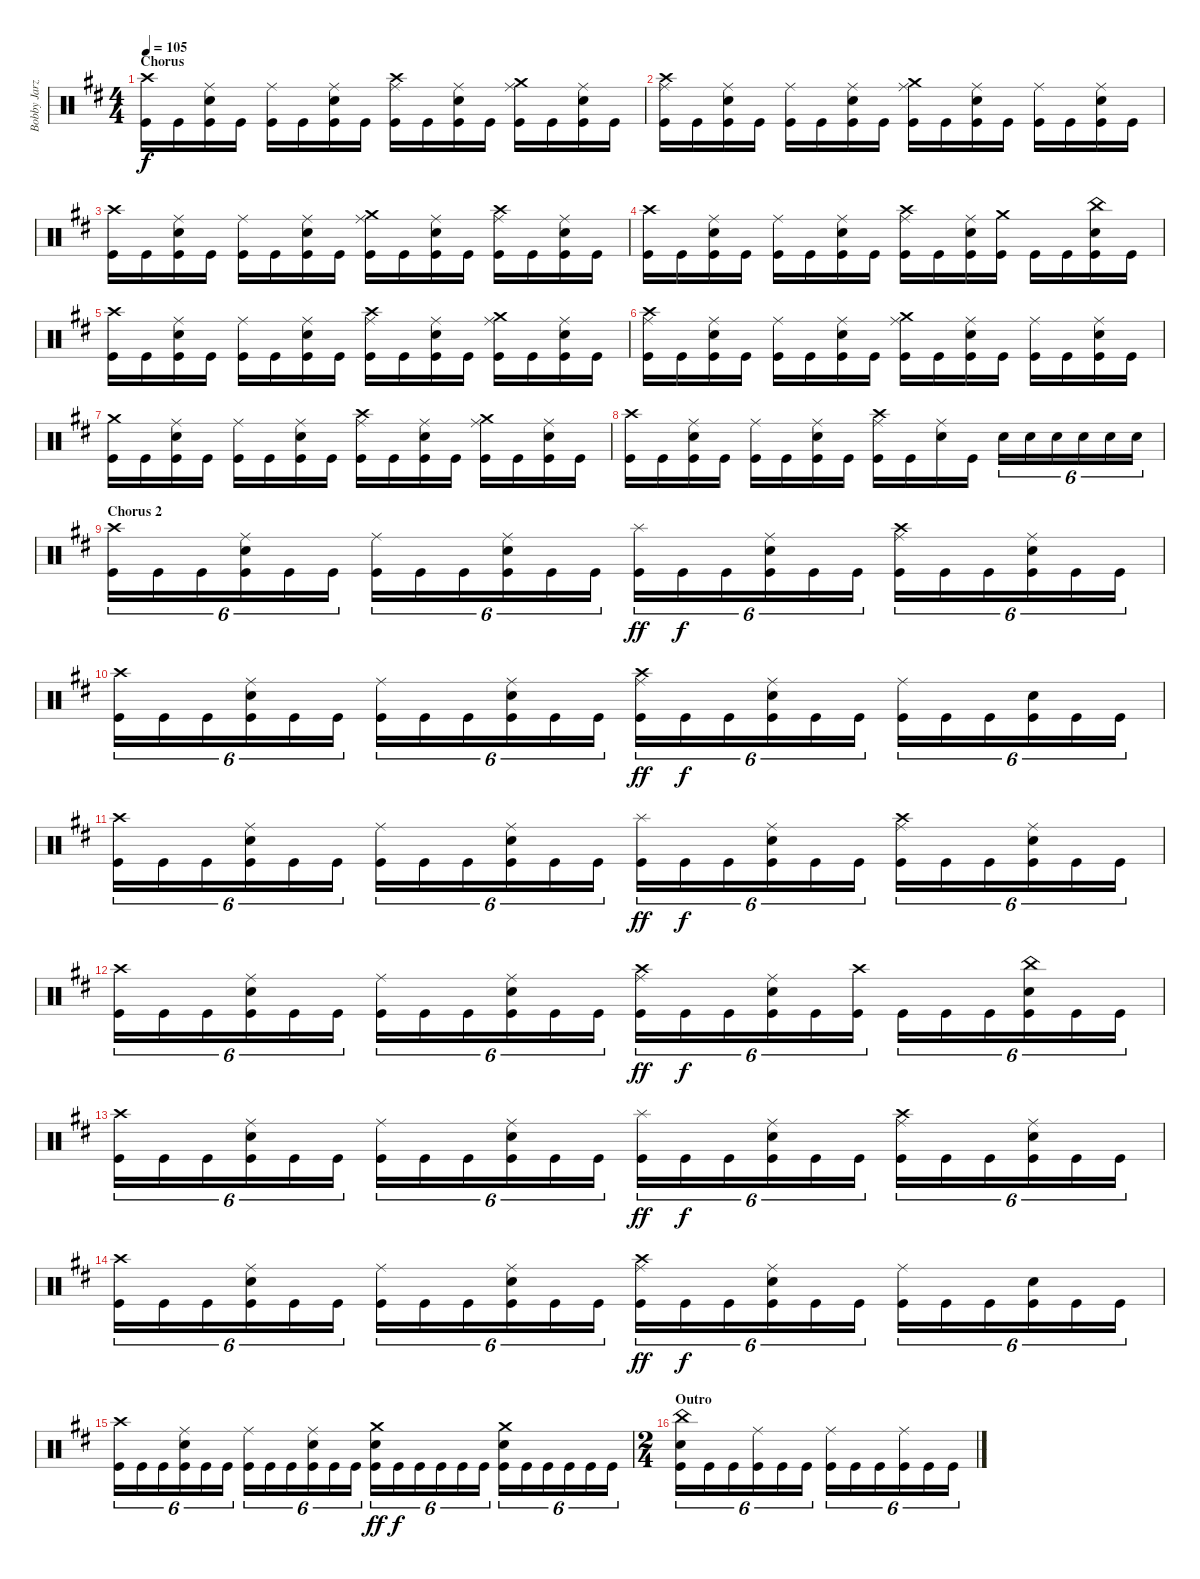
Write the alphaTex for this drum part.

\track ("Bobby Jarzombek" "Bobby Jarz") {instrument percussion}
\staff {score}
\articulation defaults
\ts (4 4)
\section ("" "Chorus")
\tempo 105
\clef neutral
\ks d
("Crash high (hit)" "Kick (hit)").16{dy f} "Kick (hit)".16 ("Ride (middle)" "Electric Snare (hit)" "Kick (hit)").16 "Kick (hit)".16 ("Ride (middle)" "Kick (hit)").16 "Kick (hit)".16 ("Ride (middle)" "Electric Snare (hit)" "Kick (hit)").16 "Kick (hit)".16 ("Crash high (hit)" "Ride (middle)" "Kick (hit)").16 "Kick (hit)".16 ("Ride (middle)" "Electric Snare (hit)" "Kick (hit)").16 "Kick (hit)".16 ("Crash medium (hit)" "Ride (middle)" "Kick (hit)").16 "Kick (hit)".16 ("Ride (middle)" "Electric Snare (hit)" "Kick (hit)").16 "Kick (hit)".16 |
("Crash high (hit)" "Ride (middle)" "Kick (hit)").16 "Kick (hit)".16 ("Ride (middle)" "Electric Snare (hit)" "Kick (hit)").16 "Kick (hit)".16 ("Ride (middle)" "Kick (hit)").16 "Kick (hit)".16 ("Ride (middle)" "Electric Snare (hit)" "Kick (hit)").16 "Kick (hit)".16 ("Crash medium (hit)" "Ride (middle)" "Kick (hit)").16 "Kick (hit)".16 ("Ride (middle)" "Electric Snare (hit)" "Kick (hit)").16 "Kick (hit)".16 ("Ride (middle)" "Kick (hit)").16 "Kick (hit)".16 ("Ride (middle)" "Electric Snare (hit)" "Kick (hit)").16 "Kick (hit)".16 |
("Crash high (hit)" "Kick (hit)").16 "Kick (hit)".16 ("Ride (middle)" "Electric Snare (hit)" "Kick (hit)").16 "Kick (hit)".16 ("Ride (middle)" "Kick (hit)").16 "Kick (hit)".16 ("Ride (middle)" "Electric Snare (hit)" "Kick (hit)").16 "Kick (hit)".16 ("Crash medium (hit)" "Ride (middle)" "Kick (hit)").16 "Kick (hit)".16 ("Ride (middle)" "Electric Snare (hit)" "Kick (hit)").16 "Kick (hit)".16 ("Crash high (hit)" "Ride (middle)" "Kick (hit)").16 "Kick (hit)".16 ("Ride (middle)" "Electric Snare (hit)" "Kick (hit)").16 "Kick (hit)".16 |
("Crash high (hit)" "Kick (hit)").16 "Kick (hit)".16 ("Ride (middle)" "Electric Snare (hit)" "Kick (hit)").16 "Kick (hit)".16 ("Ride (middle)" "Kick (hit)").16 "Kick (hit)".16 ("Ride (middle)" "Electric Snare (hit)" "Kick (hit)").16 "Kick (hit)".16 ("Crash high (hit)" "Ride (middle)" "Kick (hit)").16 "Kick (hit)".16 ("Ride (middle)" "Electric Snare (hit)" "Kick (hit)").16 ("Crash medium (hit)" "Kick (hit)").16 "Kick (hit)".16 "Kick (hit)".16 ("China (hit)" "Electric Snare (hit)" "Kick (hit)").16 "Kick (hit)".16 |
("Crash high (hit)" "Kick (hit)").16 "Kick (hit)".16 ("Ride (middle)" "Electric Snare (hit)" "Kick (hit)").16 "Kick (hit)".16 ("Ride (middle)" "Kick (hit)").16 "Kick (hit)".16 ("Ride (middle)" "Electric Snare (hit)" "Kick (hit)").16 "Kick (hit)".16 ("Crash high (hit)" "Ride (middle)" "Kick (hit)").16 "Kick (hit)".16 ("Ride (middle)" "Electric Snare (hit)" "Kick (hit)").16 "Kick (hit)".16 ("Crash medium (hit)" "Ride (middle)" "Kick (hit)").16 "Kick (hit)".16 ("Ride (middle)" "Electric Snare (hit)" "Kick (hit)").16 "Kick (hit)".16 |
("Crash high (hit)" "Ride (middle)" "Kick (hit)").16 "Kick (hit)".16 ("Ride (middle)" "Electric Snare (hit)" "Kick (hit)").16 "Kick (hit)".16 ("Ride (middle)" "Kick (hit)").16 "Kick (hit)".16 ("Ride (middle)" "Electric Snare (hit)" "Kick (hit)").16 "Kick (hit)".16 ("Crash medium (hit)" "Ride (middle)" "Kick (hit)").16 "Kick (hit)".16 ("Ride (middle)" "Electric Snare (hit)" "Kick (hit)").16 "Kick (hit)".16 ("Ride (middle)" "Kick (hit)").16 "Kick (hit)".16 ("Ride (middle)" "Electric Snare (hit)" "Kick (hit)").16 "Kick (hit)".16 |
("Crash medium (hit)" "Kick (hit)").16 "Kick (hit)".16 ("Ride (middle)" "Electric Snare (hit)" "Kick (hit)").16 "Kick (hit)".16 ("Ride (middle)" "Kick (hit)").16 "Kick (hit)".16 ("Ride (middle)" "Electric Snare (hit)" "Kick (hit)").16 "Kick (hit)".16 ("Crash high (hit)" "Ride (middle)" "Kick (hit)").16 "Kick (hit)".16 ("Ride (middle)" "Electric Snare (hit)" "Kick (hit)").16 "Kick (hit)".16 ("Crash medium (hit)" "Ride (middle)" "Kick (hit)").16 "Kick (hit)".16 ("Ride (middle)" "Electric Snare (hit)" "Kick (hit)").16 "Kick (hit)".16 |
("Crash high (hit)" "Kick (hit)").16 "Kick (hit)".16 ("Ride (middle)" "Electric Snare (hit)" "Kick (hit)").16 "Kick (hit)".16 ("Ride (middle)" "Kick (hit)").16 "Kick (hit)".16 ("Ride (middle)" "Electric Snare (hit)" "Kick (hit)").16 "Kick (hit)".16 ("Crash high (hit)" "Ride (middle)" "Kick (hit)").16 "Kick (hit)".16 ("Ride (middle)" "Electric Snare (hit)").16 "Kick (hit)".16 "Electric Snare (hit)".16{tu (6 4)} "Electric Snare (hit)".16{tu (6 4)} "Electric Snare (hit)".16{tu (6 4)} "Electric Snare (hit)".16{tu (6 4)} "Electric Snare (hit)".16{tu (6 4)} "Electric Snare (hit)".16{tu (6 4)} |
\section ("" "Chorus 2")
("Crash high (hit)" "Kick (hit)").16{tu (6 4)} "Kick (hit)".16{tu (6 4)} "Kick (hit)".16{tu (6 4)} ("Ride (middle)" "Electric Snare (hit)" "Kick (hit)").16{tu (6 4)} "Kick (hit)".16{tu (6 4)} "Kick (hit)".16{tu (6 4)} ("Ride (middle)" "Kick (hit)").16{tu (6 4)} "Kick (hit)".16{tu (6 4)} "Kick (hit)".16{tu (6 4)} ("Ride (middle)" "Electric Snare (hit)" "Kick (hit)").16{tu (6 4)} "Kick (hit)".16{tu (6 4)} "Kick (hit)".16{tu (6 4)} ("Splash (hit)" "Kick (hit)").16{tu (6 4) dy ff} "Kick (hit)".16{tu (6 4) dy f} "Kick (hit)".16{tu (6 4)} ("Ride (middle)" "Electric Snare (hit)" "Kick (hit)").16{tu (6 4)} "Kick (hit)".16{tu (6 4)} "Kick (hit)".16{tu (6 4)} ("Crash high (hit)" "Ride (middle)" "Kick (hit)").16{tu (6 4)} "Kick (hit)".16{tu (6 4)} "Kick (hit)".16{tu (6 4)} ("Ride (middle)" "Electric Snare (hit)" "Kick (hit)").16{tu (6 4)} "Kick (hit)".16{tu (6 4)} "Kick (hit)".16{tu (6 4)} |
("Crash high (hit)" "Kick (hit)").16{tu (6 4)} "Kick (hit)".16{tu (6 4)} "Kick (hit)".16{tu (6 4)} ("Ride (middle)" "Electric Snare (hit)" "Kick (hit)").16{tu (6 4)} "Kick (hit)".16{tu (6 4)} "Kick (hit)".16{tu (6 4)} ("Ride (middle)" "Kick (hit)").16{tu (6 4)} "Kick (hit)".16{tu (6 4)} "Kick (hit)".16{tu (6 4)} ("Ride (middle)" "Electric Snare (hit)" "Kick (hit)").16{tu (6 4)} "Kick (hit)".16{tu (6 4)} "Kick (hit)".16{tu (6 4)} ("Crash high (hit)" "Ride (middle)" "Kick (hit)").16{tu (6 4) dy ff} "Kick (hit)".16{tu (6 4) dy f} "Kick (hit)".16{tu (6 4)} ("Ride (middle)" "Electric Snare (hit)" "Kick (hit)").16{tu (6 4)} "Kick (hit)".16{tu (6 4)} "Kick (hit)".16{tu (6 4)} ("Ride (middle)" "Kick (hit)").16{tu (6 4)} "Kick (hit)".16{tu (6 4)} "Kick (hit)".16{tu (6 4)} ("Electric Snare (hit)" "Kick (hit)").16{tu (6 4)} "Kick (hit)".16{tu (6 4)} "Kick (hit)".16{tu (6 4)} |
("Crash high (hit)" "Kick (hit)").16{tu (6 4)} "Kick (hit)".16{tu (6 4)} "Kick (hit)".16{tu (6 4)} ("Ride (middle)" "Electric Snare (hit)" "Kick (hit)").16{tu (6 4)} "Kick (hit)".16{tu (6 4)} "Kick (hit)".16{tu (6 4)} ("Ride (middle)" "Kick (hit)").16{tu (6 4)} "Kick (hit)".16{tu (6 4)} "Kick (hit)".16{tu (6 4)} ("Ride (middle)" "Electric Snare (hit)" "Kick (hit)").16{tu (6 4)} "Kick (hit)".16{tu (6 4)} "Kick (hit)".16{tu (6 4)} ("Splash (hit)" "Kick (hit)").16{tu (6 4) dy ff} "Kick (hit)".16{tu (6 4) dy f} "Kick (hit)".16{tu (6 4)} ("Ride (middle)" "Electric Snare (hit)" "Kick (hit)").16{tu (6 4)} "Kick (hit)".16{tu (6 4)} "Kick (hit)".16{tu (6 4)} ("Crash high (hit)" "Ride (middle)" "Kick (hit)").16{tu (6 4)} "Kick (hit)".16{tu (6 4)} "Kick (hit)".16{tu (6 4)} ("Ride (middle)" "Electric Snare (hit)" "Kick (hit)").16{tu (6 4)} "Kick (hit)".16{tu (6 4)} "Kick (hit)".16{tu (6 4)} |
("Crash high (hit)" "Kick (hit)").16{tu (6 4)} "Kick (hit)".16{tu (6 4)} "Kick (hit)".16{tu (6 4)} ("Ride (middle)" "Electric Snare (hit)" "Kick (hit)").16{tu (6 4)} "Kick (hit)".16{tu (6 4)} "Kick (hit)".16{tu (6 4)} ("Ride (middle)" "Kick (hit)").16{tu (6 4)} "Kick (hit)".16{tu (6 4)} "Kick (hit)".16{tu (6 4)} ("Ride (middle)" "Electric Snare (hit)" "Kick (hit)").16{tu (6 4)} "Kick (hit)".16{tu (6 4)} "Kick (hit)".16{tu (6 4)} ("Crash high (hit)" "Ride (middle)" "Kick (hit)").16{tu (6 4) dy ff} "Kick (hit)".16{tu (6 4) dy f} "Kick (hit)".16{tu (6 4)} ("Ride (middle)" "Electric Snare (hit)" "Kick (hit)").16{tu (6 4)} "Kick (hit)".16{tu (6 4)} ("Crash high (hit)" "Kick (hit)").16{tu (6 4)} "Kick (hit)".16{tu (6 4)} "Kick (hit)".16{tu (6 4)} "Kick (hit)".16{tu (6 4)} ("China (hit)" "Electric Snare (hit)" "Kick (hit)").16{tu (6 4)} "Kick (hit)".16{tu (6 4)} "Kick (hit)".16{tu (6 4)} |
("Crash high (hit)" "Kick (hit)").16{tu (6 4)} "Kick (hit)".16{tu (6 4)} "Kick (hit)".16{tu (6 4)} ("Ride (middle)" "Electric Snare (hit)" "Kick (hit)").16{tu (6 4)} "Kick (hit)".16{tu (6 4)} "Kick (hit)".16{tu (6 4)} ("Ride (middle)" "Kick (hit)").16{tu (6 4)} "Kick (hit)".16{tu (6 4)} "Kick (hit)".16{tu (6 4)} ("Ride (middle)" "Electric Snare (hit)" "Kick (hit)").16{tu (6 4)} "Kick (hit)".16{tu (6 4)} "Kick (hit)".16{tu (6 4)} ("Splash (hit)" "Kick (hit)").16{tu (6 4) dy ff} "Kick (hit)".16{tu (6 4) dy f} "Kick (hit)".16{tu (6 4)} ("Ride (middle)" "Electric Snare (hit)" "Kick (hit)").16{tu (6 4)} "Kick (hit)".16{tu (6 4)} "Kick (hit)".16{tu (6 4)} ("Crash high (hit)" "Ride (middle)" "Kick (hit)").16{tu (6 4)} "Kick (hit)".16{tu (6 4)} "Kick (hit)".16{tu (6 4)} ("Ride (middle)" "Electric Snare (hit)" "Kick (hit)").16{tu (6 4)} "Kick (hit)".16{tu (6 4)} "Kick (hit)".16{tu (6 4)} |
("Crash high (hit)" "Kick (hit)").16{tu (6 4)} "Kick (hit)".16{tu (6 4)} "Kick (hit)".16{tu (6 4)} ("Ride (middle)" "Electric Snare (hit)" "Kick (hit)").16{tu (6 4)} "Kick (hit)".16{tu (6 4)} "Kick (hit)".16{tu (6 4)} ("Ride (middle)" "Kick (hit)").16{tu (6 4)} "Kick (hit)".16{tu (6 4)} "Kick (hit)".16{tu (6 4)} ("Ride (middle)" "Electric Snare (hit)" "Kick (hit)").16{tu (6 4)} "Kick (hit)".16{tu (6 4)} "Kick (hit)".16{tu (6 4)} ("Crash high (hit)" "Ride (middle)" "Kick (hit)").16{tu (6 4) dy ff} "Kick (hit)".16{tu (6 4) dy f} "Kick (hit)".16{tu (6 4)} ("Ride (middle)" "Electric Snare (hit)" "Kick (hit)").16{tu (6 4)} "Kick (hit)".16{tu (6 4)} "Kick (hit)".16{tu (6 4)} ("Ride (middle)" "Kick (hit)").16{tu (6 4)} "Kick (hit)".16{tu (6 4)} "Kick (hit)".16{tu (6 4)} ("Electric Snare (hit)" "Kick (hit)").16{tu (6 4)} "Kick (hit)".16{tu (6 4)} "Kick (hit)".16{tu (6 4)} |
("Crash high (hit)" "Kick (hit)").16{tu (6 4)} "Kick (hit)".16{tu (6 4)} "Kick (hit)".16{tu (6 4)} ("Ride (middle)" "Electric Snare (hit)" "Kick (hit)").16{tu (6 4)} "Kick (hit)".16{tu (6 4)} "Kick (hit)".16{tu (6 4)} ("Ride (middle)" "Kick (hit)").16{tu (6 4)} "Kick (hit)".16{tu (6 4)} "Kick (hit)".16{tu (6 4)} ("Ride (middle)" "Electric Snare (hit)" "Kick (hit)").16{tu (6 4)} "Kick (hit)".16{tu (6 4)} "Kick (hit)".16{tu (6 4)} ("Crash medium (hit)" "Electric Snare (hit)" "Kick (hit)").16{tu (6 4) dy ff} "Kick (hit)".16{tu (6 4) dy f} "Kick (hit)".16{tu (6 4)} "Kick (hit)".16{tu (6 4)} "Kick (hit)".16{tu (6 4)} "Kick (hit)".16{tu (6 4)} ("Crash medium (hit)" "Electric Snare (hit)" "Kick (hit)").16{tu (6 4)} "Kick (hit)".16{tu (6 4)} "Kick (hit)".16{tu (6 4)} "Kick (hit)".16{tu (6 4)} "Kick (hit)".16{tu (6 4)} "Kick (hit)".16{tu (6 4)} |
\ts (2 4)
\section ("" "Outro")
("China (hit)" "Electric Snare (hit)" "Kick (hit)").16{tu (6 4)} "Kick (hit)".16{tu (6 4)} "Kick (hit)".16{tu (6 4)} ("Ride (middle)" "Kick (hit)").16{tu (6 4)} "Kick (hit)".16{tu (6 4)} "Kick (hit)".16{tu (6 4)} ("Ride (middle)" "Kick (hit)").16{tu (6 4)} "Kick (hit)".16{tu (6 4)} "Kick (hit)".16{tu (6 4)} ("Ride (middle)" "Kick (hit)").16{tu (6 4)} "Kick (hit)".16{tu (6 4)} "Kick (hit)".16{tu (6 4)}
